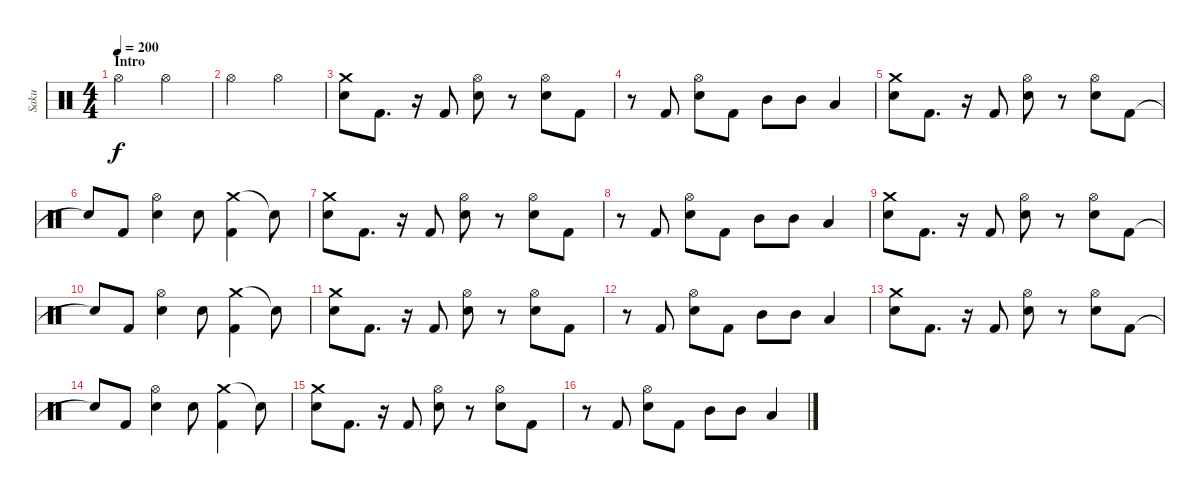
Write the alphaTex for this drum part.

\track ("Saku" "Saku") {instrument percussion}
\staff {score}
\articulation defaults
\ts (4 4)
\section ("" "Intro")
\tempo 200
\clef neutral
\ks c "Hi-Hat (open)".2{dy f} "Hi-Hat (open)".2
|
"Hi-Hat (open)".2 "Hi-Hat (open)".2 |
("Crash medium (hit)" "Electric Snare (hit)").8 "Kick (hit) 2".8{d} r.16 "Kick (hit) 2".8 ("Hi-Hat (open)" "Electric Snare (hit)").8 r.8 ("Hi-Hat (open)" "Electric Snare (hit)").8 "Kick (hit) 2".8 |
r.8 "Kick (hit) 2".8 ("Hi-Hat (open)" "Electric Snare (hit)").8 "Kick (hit) 2".8 "Mid Tom (hit)".8 "Mid Tom (hit)".8 "Low Tom (hit)".4 |
("Crash medium (hit)" "Electric Snare (hit)").8 "Kick (hit) 2".8{d} r.16 "Kick (hit) 2".8 ("Hi-Hat (open)" "Electric Snare (hit)").8 r.8 ("Hi-Hat (open)" "Electric Snare (hit)").8 "Kick (hit) 2".8 |
"Snare (hit)"{t}.8 "Kick (hit) 2".8 ("Hi-Hat (open)" "Electric Snare (hit)").4 "Electric Snare (hit)".8 ("Crash medium (hit)" "Kick (hit) 2").4 "Snare (hit)"{t}.8 |
("Crash medium (hit)" "Electric Snare (hit)").8 "Kick (hit) 2".8{d} r.16 "Kick (hit) 2".8 ("Hi-Hat (open)" "Electric Snare (hit)").8 r.8 ("Hi-Hat (open)" "Electric Snare (hit)").8 "Kick (hit) 2".8 |
r.8 "Kick (hit) 2".8 ("Hi-Hat (open)" "Electric Snare (hit)").8 "Kick (hit) 2".8 "Mid Tom (hit)".8 "Mid Tom (hit)".8 "Low Tom (hit)".4 |
("Crash medium (hit)" "Electric Snare (hit)").8 "Kick (hit) 2".8{d} r.16 "Kick (hit) 2".8 ("Hi-Hat (open)" "Electric Snare (hit)").8 r.8 ("Hi-Hat (open)" "Electric Snare (hit)").8 "Kick (hit) 2".8 |
"Snare (hit)"{t}.8 "Kick (hit) 2".8 ("Hi-Hat (open)" "Electric Snare (hit)").4 "Electric Snare (hit)".8 ("Crash medium (hit)" "Kick (hit) 2").4 "Snare (hit)"{t}.8 |
("Crash medium (hit)" "Electric Snare (hit)").8 "Kick (hit) 2".8{d} r.16 "Kick (hit) 2".8 ("Hi-Hat (open)" "Electric Snare (hit)").8 r.8 ("Hi-Hat (open)" "Electric Snare (hit)").8 "Kick (hit) 2".8 |
r.8 "Kick (hit) 2".8 ("Hi-Hat (open)" "Electric Snare (hit)").8 "Kick (hit) 2".8 "Mid Tom (hit)".8 "Mid Tom (hit)".8 "Low Tom (hit)".4 |
("Crash medium (hit)" "Electric Snare (hit)").8 "Kick (hit) 2".8{d} r.16 "Kick (hit) 2".8 ("Hi-Hat (open)" "Electric Snare (hit)").8 r.8 ("Hi-Hat (open)" "Electric Snare (hit)").8 "Kick (hit) 2".8 |
"Snare (hit)"{t}.8 "Kick (hit) 2".8 ("Hi-Hat (open)" "Electric Snare (hit)").4 "Electric Snare (hit)".8 ("Crash medium (hit)" "Kick (hit) 2").4 "Snare (hit)"{t}.8 |
("Crash medium (hit)" "Electric Snare (hit)").8 "Kick (hit) 2".8{d} r.16 "Kick (hit) 2".8 ("Hi-Hat (open)" "Electric Snare (hit)").8 r.8 ("Hi-Hat (open)" "Electric Snare (hit)").8 "Kick (hit) 2".8 |
r.8 "Kick (hit) 2".8 ("Hi-Hat (open)" "Electric Snare (hit)").8 "Kick (hit) 2".8 "Mid Tom (hit)".8 "Mid Tom (hit)".8 "Low Tom (hit)".4
